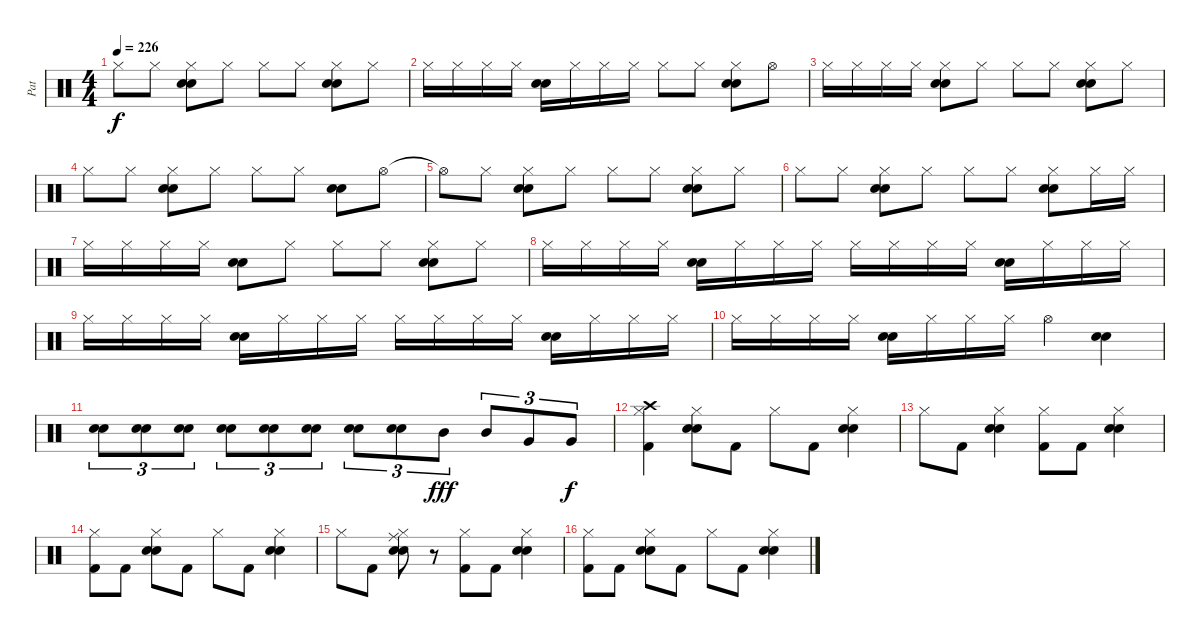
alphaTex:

\track ("Pat" "Pat") {instrument percussion}
\staff {score}
\articulation defaults
\ts (4 4)
\tempo 226
\clef neutral
\ks c "Hi-Hat (closed)".8{dy f} "Hi-Hat (closed)".8
("Hi-Hat (closed)" "Snare (hit) 2" "Electric Snare (hit)").8 "Hi-Hat (closed)".8 "Hi-Hat (closed)".8 "Hi-Hat (closed)".8 ("Hi-Hat (closed)" "Snare (hit) 2" "Electric Snare (hit)").8 "Hi-Hat (closed)".8 |
"Hi-Hat (closed)".16 "Hi-Hat (closed)".16 "Hi-Hat (closed)".16 "Hi-Hat (closed)".16 ("Snare (hit) 2" "Electric Snare (hit)").16 "Hi-Hat (closed)".16 "Hi-Hat (closed)".16 "Hi-Hat (closed)".16 "Hi-Hat (closed)".8 "Hi-Hat (closed)".8 ("Hi-Hat (closed)" "Snare (hit) 2" "Electric Snare (hit)").8 "Hi-Hat (open)".8 |
"Hi-Hat (closed)".16 "Hi-Hat (closed)".16 "Hi-Hat (closed)".16 "Hi-Hat (closed)".16 ("Hi-Hat (closed)" "Snare (hit) 2" "Electric Snare (hit)").8 "Hi-Hat (closed)".8 "Hi-Hat (closed)".8 "Hi-Hat (closed)".8 ("Hi-Hat (closed)" "Snare (hit) 2" "Electric Snare (hit)").8 "Hi-Hat (closed)".8 |
"Hi-Hat (closed)".8 "Hi-Hat (closed)".8 ("Hi-Hat (closed)" "Snare (hit) 2" "Electric Snare (hit)").8 "Hi-Hat (closed)".8 "Hi-Hat (closed)".8 "Hi-Hat (closed)".8 ("Snare (hit) 2" "Electric Snare (hit)").8 "Hi-Hat (open)".8 |
"Hi-Hat (open)"{t}.8 "Hi-Hat (closed)".8 ("Hi-Hat (closed)" "Snare (hit) 2" "Electric Snare (hit)").8 "Hi-Hat (closed)".8 "Hi-Hat (closed)".8 "Hi-Hat (closed)".8 ("Hi-Hat (closed)" "Snare (hit) 2" "Electric Snare (hit)").8 "Hi-Hat (closed)".8 |
"Hi-Hat (closed)".8 "Hi-Hat (closed)".8 ("Hi-Hat (closed)" "Snare (hit) 2" "Electric Snare (hit)").8 "Hi-Hat (closed)".8 "Hi-Hat (closed)".8 "Hi-Hat (closed)".8 ("Hi-Hat (closed)" "Snare (hit) 2" "Electric Snare (hit)").8 "Hi-Hat (closed)".16 "Hi-Hat (closed)".16 |
"Hi-Hat (closed)".16 "Hi-Hat (closed)".16 "Hi-Hat (closed)".16 "Hi-Hat (closed)".16 ("Snare (hit) 2" "Electric Snare (hit)").8 "Hi-Hat (closed)".8 "Hi-Hat (closed)".8 "Hi-Hat (closed)".8 ("Hi-Hat (closed)" "Snare (hit) 2" "Electric Snare (hit)").8 "Hi-Hat (closed)".8 |
"Hi-Hat (closed)".16 "Hi-Hat (closed)".16 "Hi-Hat (closed)".16 "Hi-Hat (closed)".16 ("Snare (hit) 2" "Electric Snare (hit)").16 "Hi-Hat (closed)".16 "Hi-Hat (closed)".16 "Hi-Hat (closed)".16 "Hi-Hat (closed)".16 "Hi-Hat (closed)".16 "Hi-Hat (closed)".16 "Hi-Hat (closed)".16 ("Snare (hit) 2" "Electric Snare (hit)").16 "Hi-Hat (closed)".16 "Hi-Hat (closed)".16 "Hi-Hat (closed)".16 |
"Hi-Hat (closed)".16 "Hi-Hat (closed)".16 "Hi-Hat (closed)".16 "Hi-Hat (closed)".16 ("Snare (hit) 2" "Electric Snare (hit)").16 "Hi-Hat (closed)".16 "Hi-Hat (closed)".16 "Hi-Hat (closed)".16 "Hi-Hat (closed)".16 "Hi-Hat (closed)".16 "Hi-Hat (closed)".16 "Hi-Hat (closed)".16 ("Snare (hit) 2" "Electric Snare (hit)").16 "Hi-Hat (closed)".16 "Hi-Hat (closed)".16 "Hi-Hat (closed)".16 |
"Hi-Hat (closed)".16 "Hi-Hat (closed)".16 "Hi-Hat (closed)".16 "Hi-Hat (closed)".16 ("Snare (hit) 2" "Electric Snare (hit)").16 "Hi-Hat (closed)".16 "Hi-Hat (closed)".16 "Hi-Hat (closed)".16 "Hi-Hat (open)".4 ("Snare (hit) 2" "Electric Snare (hit)").4 |
("Snare (hit) 2" "Electric Snare (hit)").8{tu (3 2)} ("Snare (hit) 2" "Electric Snare (hit)").8{tu (3 2)} ("Snare (hit) 2" "Electric Snare (hit)").8{tu (3 2)} ("Snare (hit) 2" "Electric Snare (hit)").8{tu (3 2)} ("Snare (hit) 2" "Electric Snare (hit)").8{tu (3 2)} ("Snare (hit) 2" "Electric Snare (hit)").8{tu (3 2)} ("Snare (hit) 2" "Electric Snare (hit)").8{tu (3 2)} ("Snare (hit) 2" "Electric Snare (hit)").8{tu (3 2)} "Mid Tom (hit)".8{tu (3 2) dy fff} "Mid Tom (hit)".8{tu (3 2)} "Very Low Tom (hit)".8{tu (3 2)} "Very Low Tom (hit)".8{tu (3 2) dy f} |
("Hi-Hat (closed)" "Crash high (hit)" "Kick (hit) 2").4 ("Hi-Hat (closed)" "Snare (hit) 2" "Electric Snare (hit)").8 "Kick (hit) 2".8 "Hi-Hat (closed)".8 "Kick (hit) 2".8 ("Hi-Hat (closed)" "Snare (hit) 2" "Electric Snare (hit)").4 |
"Hi-Hat (closed)".8 "Kick (hit) 2".8 ("Hi-Hat (closed)" "Snare (hit) 2" "Electric Snare (hit)").4 ("Hi-Hat (closed)" "Kick (hit) 2").8 "Kick (hit) 2".8 ("Hi-Hat (closed)" "Snare (hit) 2" "Electric Snare (hit)").4 |
("Hi-Hat (closed)" "Kick (hit) 2").8 "Kick (hit) 2".8 ("Hi-Hat (closed)" "Snare (hit) 2" "Electric Snare (hit)").8 "Kick (hit) 2".8 "Hi-Hat (closed)".8 "Kick (hit) 2".8 ("Hi-Hat (closed)" "Snare (hit) 2" "Electric Snare (hit)").4 |
"Hi-Hat (closed)".8 "Kick (hit) 2".8 ("Hi-Hat (closed)" "Ride (middle)" "Snare (hit) 2" "Electric Snare (hit)").8 r.8 ("Hi-Hat (closed)" "Kick (hit) 2").8 "Kick (hit) 2".8 ("Hi-Hat (closed)" "Snare (hit) 2" "Electric Snare (hit)").4 |
("Hi-Hat (closed)" "Kick (hit) 2").8 "Kick (hit) 2".8 ("Hi-Hat (closed)" "Snare (hit) 2" "Electric Snare (hit)").8 "Kick (hit) 2".8 "Hi-Hat (closed)".8 "Kick (hit) 2".8 ("Hi-Hat (closed)" "Snare (hit) 2" "Electric Snare (hit)").4
